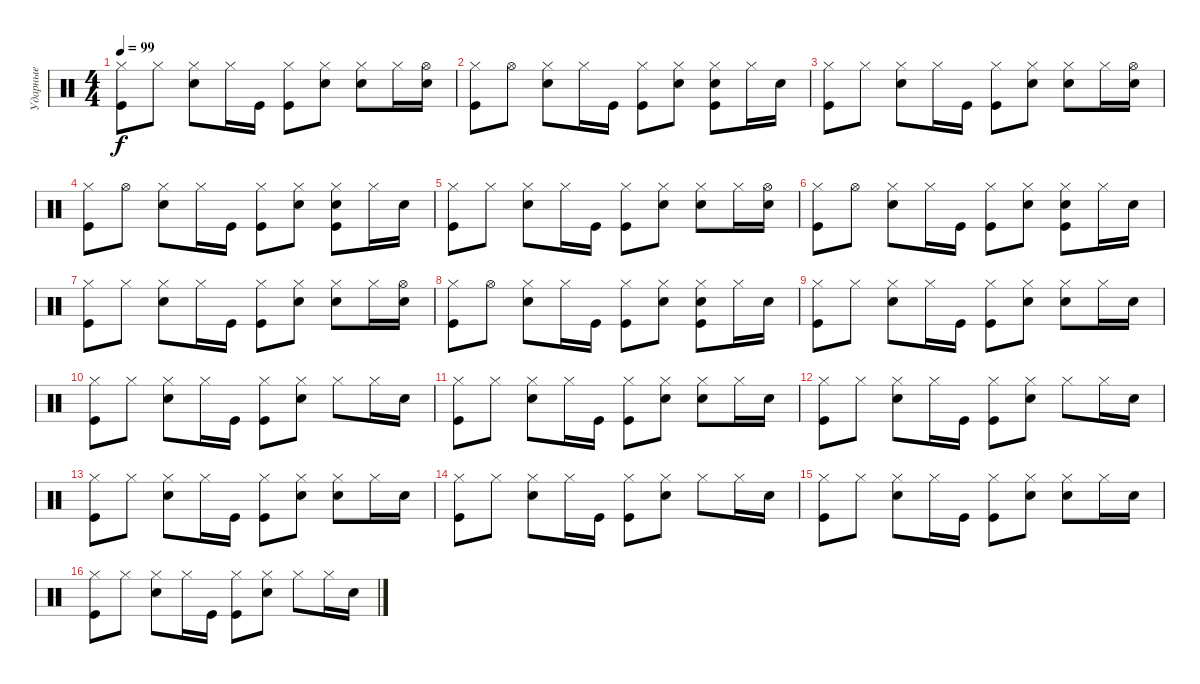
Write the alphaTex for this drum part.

\track ("Ударные" "Ударные") {instrument percussion}
\staff {score}
\articulation defaults
\ts (4 4)
\tempo 99
\clef neutral
\ks c
("Kick (hit)" "Hi-Hat (closed)").8{dy f} "Hi-Hat (closed)".8 ("Snare (hit) 2" "Hi-Hat (closed)").8 "Hi-Hat (closed)".16 "Kick (hit)".16 ("Hi-Hat (closed)" "Kick (hit)").8 ("Snare (hit) 2" "Hi-Hat (closed)").8 ("Hi-Hat (closed)" "Snare (hit) 2").8 "Hi-Hat (closed)".16 ("Snare (hit) 2" "Hi-Hat (open)").16 |
("Kick (hit)" "Hi-Hat (closed)").8 "Hi-Hat (open)".8 ("Snare (hit) 2" "Hi-Hat (closed)").8 "Hi-Hat (closed)".16 "Kick (hit)".16 ("Hi-Hat (closed)" "Kick (hit)").8 ("Snare (hit) 2" "Hi-Hat (closed)").8 ("Hi-Hat (closed)" "Kick (hit)" "Snare (hit) 2").8 "Hi-Hat (closed)".16 "Snare (hit) 2".16 |
("Kick (hit)" "Hi-Hat (closed)").8 "Hi-Hat (closed)".8 ("Snare (hit) 2" "Hi-Hat (closed)").8 "Hi-Hat (closed)".16 "Kick (hit)".16 ("Hi-Hat (closed)" "Kick (hit)").8 ("Snare (hit) 2" "Hi-Hat (closed)").8 ("Hi-Hat (closed)" "Snare (hit) 2").8 "Hi-Hat (closed)".16 ("Snare (hit) 2" "Hi-Hat (open)").16 |
("Kick (hit)" "Hi-Hat (closed)").8 "Hi-Hat (open)".8 ("Snare (hit) 2" "Hi-Hat (closed)").8 "Hi-Hat (closed)".16 "Kick (hit)".16 ("Hi-Hat (closed)" "Kick (hit)").8 ("Snare (hit) 2" "Hi-Hat (closed)").8 ("Hi-Hat (closed)" "Kick (hit)" "Snare (hit) 2").8 "Hi-Hat (closed)".16 "Snare (hit) 2".16 |
("Kick (hit)" "Hi-Hat (closed)").8 "Hi-Hat (closed)".8 ("Snare (hit) 2" "Hi-Hat (closed)").8 "Hi-Hat (closed)".16 "Kick (hit)".16 ("Hi-Hat (closed)" "Kick (hit)").8 ("Snare (hit) 2" "Hi-Hat (closed)").8 ("Hi-Hat (closed)" "Snare (hit) 2").8 "Hi-Hat (closed)".16 ("Snare (hit) 2" "Hi-Hat (open)").16 |
("Kick (hit)" "Hi-Hat (closed)").8 "Hi-Hat (open)".8 ("Snare (hit) 2" "Hi-Hat (closed)").8 "Hi-Hat (closed)".16 "Kick (hit)".16 ("Hi-Hat (closed)" "Kick (hit)").8 ("Snare (hit) 2" "Hi-Hat (closed)").8 ("Hi-Hat (closed)" "Kick (hit)" "Snare (hit) 2").8 "Hi-Hat (closed)".16 "Snare (hit) 2".16 |
("Kick (hit)" "Hi-Hat (closed)").8 "Hi-Hat (closed)".8 ("Snare (hit) 2" "Hi-Hat (closed)").8 "Hi-Hat (closed)".16 "Kick (hit)".16 ("Hi-Hat (closed)" "Kick (hit)").8 ("Snare (hit) 2" "Hi-Hat (closed)").8 ("Hi-Hat (closed)" "Snare (hit) 2").8 "Hi-Hat (closed)".16 ("Snare (hit) 2" "Hi-Hat (open)").16 |
("Kick (hit)" "Hi-Hat (closed)").8 "Hi-Hat (open)".8 ("Snare (hit) 2" "Hi-Hat (closed)").8 "Hi-Hat (closed)".16 "Kick (hit)".16 ("Hi-Hat (closed)" "Kick (hit)").8 ("Snare (hit) 2" "Hi-Hat (closed)").8 ("Hi-Hat (closed)" "Kick (hit)" "Snare (hit) 2").8 "Hi-Hat (closed)".16 "Snare (hit) 2".16 |
("Kick (hit)" "Hi-Hat (closed)").8 "Hi-Hat (closed)".8 ("Snare (hit) 2" "Hi-Hat (closed)").8 "Hi-Hat (closed)".16 "Kick (hit)".16 ("Hi-Hat (closed)" "Kick (hit)").8 ("Snare (hit) 2" "Hi-Hat (closed)").8 ("Hi-Hat (closed)" "Snare (hit) 2").8 "Hi-Hat (closed)".16 "Snare (hit) 2".16 |
("Kick (hit)" "Hi-Hat (closed)").8 "Hi-Hat (closed)".8 ("Snare (hit) 2" "Hi-Hat (closed)").8 "Hi-Hat (closed)".16 "Kick (hit)".16 ("Hi-Hat (closed)" "Kick (hit)").8 ("Snare (hit) 2" "Hi-Hat (closed)").8 "Hi-Hat (closed)".8 "Hi-Hat (closed)".16 "Snare (hit) 2".16 |
("Kick (hit)" "Hi-Hat (closed)").8 "Hi-Hat (closed)".8 ("Snare (hit) 2" "Hi-Hat (closed)").8 "Hi-Hat (closed)".16 "Kick (hit)".16 ("Hi-Hat (closed)" "Kick (hit)").8 ("Snare (hit) 2" "Hi-Hat (closed)").8 ("Hi-Hat (closed)" "Snare (hit) 2").8 "Hi-Hat (closed)".16 "Snare (hit) 2".16 |
("Kick (hit)" "Hi-Hat (closed)").8 "Hi-Hat (closed)".8 ("Snare (hit) 2" "Hi-Hat (closed)").8 "Hi-Hat (closed)".16 "Kick (hit)".16 ("Hi-Hat (closed)" "Kick (hit)").8 ("Snare (hit) 2" "Hi-Hat (closed)").8 "Hi-Hat (closed)".8 "Hi-Hat (closed)".16 "Snare (hit) 2".16 |
("Kick (hit)" "Hi-Hat (closed)").8 "Hi-Hat (closed)".8 ("Snare (hit) 2" "Hi-Hat (closed)").8 "Hi-Hat (closed)".16 "Kick (hit)".16 ("Hi-Hat (closed)" "Kick (hit)").8 ("Snare (hit) 2" "Hi-Hat (closed)").8 ("Hi-Hat (closed)" "Snare (hit) 2").8 "Hi-Hat (closed)".16 "Snare (hit) 2".16 |
("Kick (hit)" "Hi-Hat (closed)").8 "Hi-Hat (closed)".8 ("Snare (hit) 2" "Hi-Hat (closed)").8 "Hi-Hat (closed)".16 "Kick (hit)".16 ("Hi-Hat (closed)" "Kick (hit)").8 ("Snare (hit) 2" "Hi-Hat (closed)").8 "Hi-Hat (closed)".8 "Hi-Hat (closed)".16 "Snare (hit) 2".16 |
("Kick (hit)" "Hi-Hat (closed)").8 "Hi-Hat (closed)".8 ("Snare (hit) 2" "Hi-Hat (closed)").8 "Hi-Hat (closed)".16 "Kick (hit)".16 ("Hi-Hat (closed)" "Kick (hit)").8 ("Snare (hit) 2" "Hi-Hat (closed)").8 ("Hi-Hat (closed)" "Snare (hit) 2").8 "Hi-Hat (closed)".16 "Snare (hit) 2".16 |
("Kick (hit)" "Hi-Hat (closed)").8 "Hi-Hat (closed)".8 ("Snare (hit) 2" "Hi-Hat (closed)").8 "Hi-Hat (closed)".16 "Kick (hit)".16 ("Hi-Hat (closed)" "Kick (hit)").8 ("Snare (hit) 2" "Hi-Hat (closed)").8 "Hi-Hat (closed)".8 "Hi-Hat (closed)".16 "Snare (hit) 2".16
